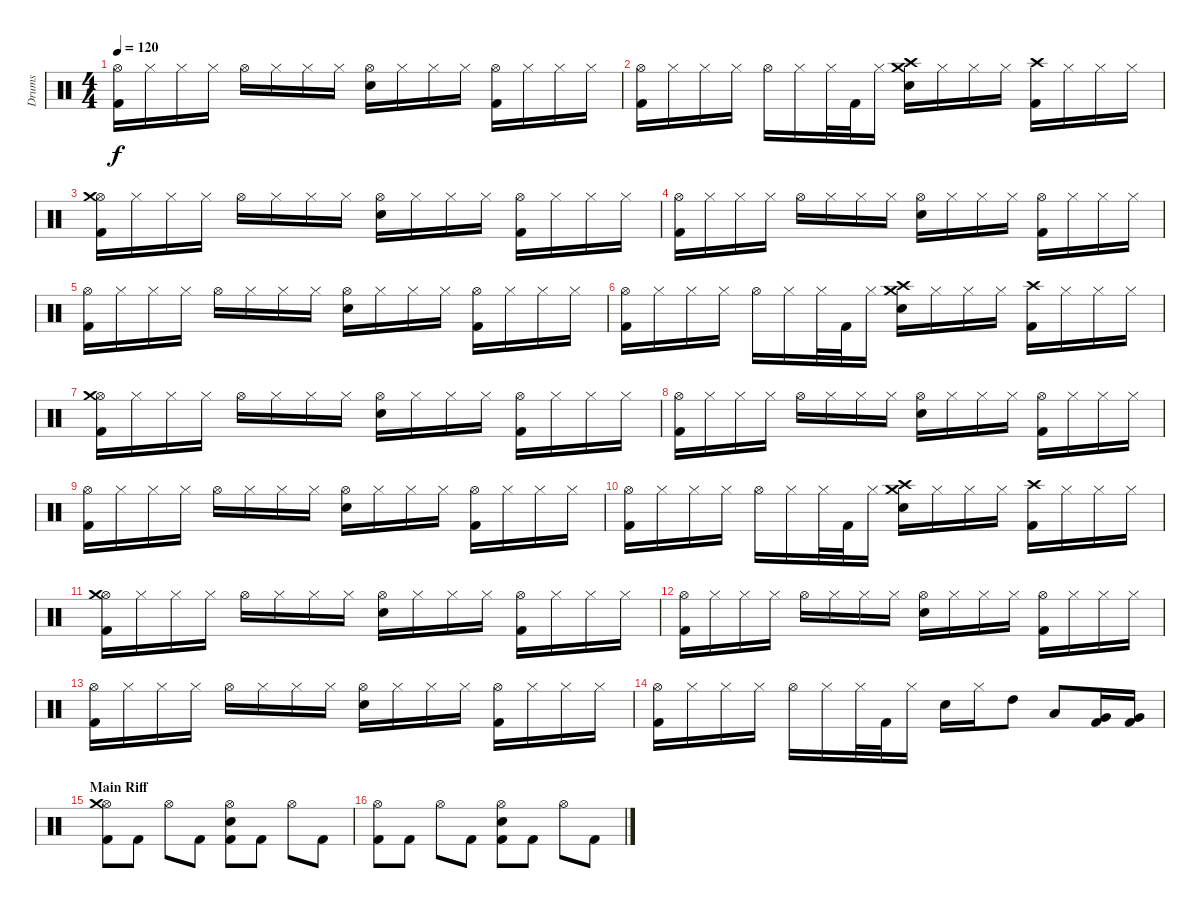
\track ("Drums" "Drums") {instrument percussion}
\staff {score}
\articulation defaults
\ts (4 4)
\tempo 120
\clef neutral
\ks c
("Hi-Hat (open)" "Kick (hit) 2").16{dy f} "Hi-Hat (closed)".16 "Hi-Hat (closed)".16 "Hi-Hat (closed)".16 "Hi-Hat (open)".16 "Hi-Hat (closed)".16 "Hi-Hat (closed)".16 "Hi-Hat (closed)".16 ("Hi-Hat (open)" "Snare (hit) 2").16 "Hi-Hat (closed)".16 "Hi-Hat (closed)".16 "Hi-Hat (closed)".16 ("Hi-Hat (open)" "Kick (hit) 2").16 "Hi-Hat (closed)".16 "Hi-Hat (closed)".16 "Hi-Hat (closed)".16 |
("Hi-Hat (open)" "Kick (hit) 2").16 "Hi-Hat (closed)".16 "Hi-Hat (closed)".16 "Hi-Hat (closed)".16 "Hi-Hat (open)".16 "Hi-Hat (closed)".16 "Hi-Hat (closed)".32 "Kick (hit) 2".32 "Hi-Hat (closed)".16 ("Crash high (hit)" "Crash medium (hit)" "Snare (hit) 2").16 "Hi-Hat (closed)".16 "Hi-Hat (closed)".16 "Hi-Hat (closed)".16 ("Crash high (hit)" "Kick (hit) 2").16 "Hi-Hat (closed)".16 "Hi-Hat (closed)".16 "Hi-Hat (closed)".16 |
("Hi-Hat (open)" "Crash medium (hit)" "Kick (hit) 2").16 "Hi-Hat (closed)".16 "Hi-Hat (closed)".16 "Hi-Hat (closed)".16 "Hi-Hat (open)".16 "Hi-Hat (closed)".16 "Hi-Hat (closed)".16 "Hi-Hat (closed)".16 ("Hi-Hat (open)" "Snare (hit) 2").16 "Hi-Hat (closed)".16 "Hi-Hat (closed)".16 "Hi-Hat (closed)".16 ("Hi-Hat (open)" "Kick (hit) 2").16 "Hi-Hat (closed)".16 "Hi-Hat (closed)".16 "Hi-Hat (closed)".16 |
("Hi-Hat (open)" "Kick (hit) 2").16 "Hi-Hat (closed)".16 "Hi-Hat (closed)".16 "Hi-Hat (closed)".16 "Hi-Hat (open)".16 "Hi-Hat (closed)".16 "Hi-Hat (closed)".16 "Hi-Hat (closed)".16 ("Hi-Hat (open)" "Snare (hit) 2").16 "Hi-Hat (closed)".16 "Hi-Hat (closed)".16 "Hi-Hat (closed)".16 ("Hi-Hat (open)" "Kick (hit) 2").16 "Hi-Hat (closed)".16 "Hi-Hat (closed)".16 "Hi-Hat (closed)".16 |
("Hi-Hat (open)" "Kick (hit) 2").16 "Hi-Hat (closed)".16 "Hi-Hat (closed)".16 "Hi-Hat (closed)".16 "Hi-Hat (open)".16 "Hi-Hat (closed)".16 "Hi-Hat (closed)".16 "Hi-Hat (closed)".16 ("Hi-Hat (open)" "Snare (hit) 2").16 "Hi-Hat (closed)".16 "Hi-Hat (closed)".16 "Hi-Hat (closed)".16 ("Hi-Hat (open)" "Kick (hit) 2").16 "Hi-Hat (closed)".16 "Hi-Hat (closed)".16 "Hi-Hat (closed)".16 |
("Hi-Hat (open)" "Kick (hit) 2").16 "Hi-Hat (closed)".16 "Hi-Hat (closed)".16 "Hi-Hat (closed)".16 "Hi-Hat (open)".16 "Hi-Hat (closed)".16 "Hi-Hat (closed)".32 "Kick (hit) 2".32 "Hi-Hat (closed)".16 ("Crash medium (hit)" "Crash high (hit)" "Snare (hit) 2").16 "Hi-Hat (closed)".16 "Hi-Hat (closed)".16 "Hi-Hat (closed)".16 ("Crash high (hit)" "Kick (hit) 2").16 "Hi-Hat (closed)".16 "Hi-Hat (closed)".16 "Hi-Hat (closed)".16 |
("Hi-Hat (open)" "Crash medium (hit)" "Kick (hit) 2").16 "Hi-Hat (closed)".16 "Hi-Hat (closed)".16 "Hi-Hat (closed)".16 "Hi-Hat (open)".16 "Hi-Hat (closed)".16 "Hi-Hat (closed)".16 "Hi-Hat (closed)".16 ("Hi-Hat (open)" "Snare (hit) 2").16 "Hi-Hat (closed)".16 "Hi-Hat (closed)".16 "Hi-Hat (closed)".16 ("Hi-Hat (open)" "Kick (hit) 2").16 "Hi-Hat (closed)".16 "Hi-Hat (closed)".16 "Hi-Hat (closed)".16 |
("Hi-Hat (open)" "Kick (hit) 2").16 "Hi-Hat (closed)".16 "Hi-Hat (closed)".16 "Hi-Hat (closed)".16 "Hi-Hat (open)".16 "Hi-Hat (closed)".16 "Hi-Hat (closed)".16 "Hi-Hat (closed)".16 ("Hi-Hat (open)" "Snare (hit) 2").16 "Hi-Hat (closed)".16 "Hi-Hat (closed)".16 "Hi-Hat (closed)".16 ("Hi-Hat (open)" "Kick (hit) 2").16 "Hi-Hat (closed)".16 "Hi-Hat (closed)".16 "Hi-Hat (closed)".16 |
("Hi-Hat (open)" "Kick (hit) 2").16 "Hi-Hat (closed)".16 "Hi-Hat (closed)".16 "Hi-Hat (closed)".16 "Hi-Hat (open)".16 "Hi-Hat (closed)".16 "Hi-Hat (closed)".16 "Hi-Hat (closed)".16 ("Hi-Hat (open)" "Snare (hit) 2").16 "Hi-Hat (closed)".16 "Hi-Hat (closed)".16 "Hi-Hat (closed)".16 ("Hi-Hat (open)" "Kick (hit) 2").16 "Hi-Hat (closed)".16 "Hi-Hat (closed)".16 "Hi-Hat (closed)".16 |
("Hi-Hat (open)" "Kick (hit) 2").16 "Hi-Hat (closed)".16 "Hi-Hat (closed)".16 "Hi-Hat (closed)".16 "Hi-Hat (open)".16 "Hi-Hat (closed)".16 "Hi-Hat (closed)".32 "Kick (hit) 2".32 "Hi-Hat (closed)".16 ("Crash medium (hit)" "Crash high (hit)" "Snare (hit) 2").16 "Hi-Hat (closed)".16 "Hi-Hat (closed)".16 "Hi-Hat (closed)".16 ("Crash high (hit)" "Kick (hit) 2").16 "Hi-Hat (closed)".16 "Hi-Hat (closed)".16 "Hi-Hat (closed)".16 |
("Hi-Hat (open)" "Crash medium (hit)" "Kick (hit) 2").16 "Hi-Hat (closed)".16 "Hi-Hat (closed)".16 "Hi-Hat (closed)".16 "Hi-Hat (open)".16 "Hi-Hat (closed)".16 "Hi-Hat (closed)".16 "Hi-Hat (closed)".16 ("Hi-Hat (open)" "Snare (hit) 2").16 "Hi-Hat (closed)".16 "Hi-Hat (closed)".16 "Hi-Hat (closed)".16 ("Hi-Hat (open)" "Kick (hit) 2").16 "Hi-Hat (closed)".16 "Hi-Hat (closed)".16 "Hi-Hat (closed)".16 |
("Hi-Hat (open)" "Kick (hit) 2").16 "Hi-Hat (closed)".16 "Hi-Hat (closed)".16 "Hi-Hat (closed)".16 "Hi-Hat (open)".16 "Hi-Hat (closed)".16 "Hi-Hat (closed)".16 "Hi-Hat (closed)".16 ("Hi-Hat (open)" "Snare (hit) 2").16 "Hi-Hat (closed)".16 "Hi-Hat (closed)".16 "Hi-Hat (closed)".16 ("Hi-Hat (open)" "Kick (hit) 2").16 "Hi-Hat (closed)".16 "Hi-Hat (closed)".16 "Hi-Hat (closed)".16 |
("Hi-Hat (open)" "Kick (hit) 2").16 "Hi-Hat (closed)".16 "Hi-Hat (closed)".16 "Hi-Hat (closed)".16 "Hi-Hat (open)".16 "Hi-Hat (closed)".16 "Hi-Hat (closed)".16 "Hi-Hat (closed)".16 ("Hi-Hat (open)" "Snare (hit) 2").16 "Hi-Hat (closed)".16 "Hi-Hat (closed)".16 "Hi-Hat (closed)".16 ("Hi-Hat (open)" "Kick (hit) 2").16 "Hi-Hat (closed)".16 "Hi-Hat (closed)".16 "Hi-Hat (closed)".16 |
("Hi-Hat (open)" "Kick (hit) 2").16 "Hi-Hat (closed)".16 "Hi-Hat (closed)".16 "Hi-Hat (closed)".16 "Hi-Hat (open)".16 "Hi-Hat (closed)".16 "Hi-Hat (closed)".32 "Kick (hit) 2".32 "Hi-Hat (closed)".16 "Snare (hit) 2".16 "Hi-Hat (closed)".16 "High Tom (hit)".8 "Low Tom (hit)".8 ("Very Low Tom (hit)" "Kick (hit) 2").16 ("Very Low Tom (hit)" "Kick (hit) 2").16 |
\section ("" "Main Riff")
("Hi-Hat (open)" "Crash medium (hit)" "Kick (hit) 2").8 "Kick (hit) 2".8 "Hi-Hat (open)".8 "Kick (hit) 2".8 ("Hi-Hat (open)" "Snare (hit) 2" "Kick (hit) 2").8 "Kick (hit) 2".8 "Hi-Hat (open)".8 "Kick (hit) 2".8 |
("Hi-Hat (open)" "Kick (hit) 2").8 "Kick (hit) 2".8 "Hi-Hat (open)".8 "Kick (hit) 2".8 ("Hi-Hat (open)" "Snare (hit) 2" "Kick (hit) 2").8 "Kick (hit) 2".8 "Hi-Hat (open)".8 "Kick (hit) 2".8
